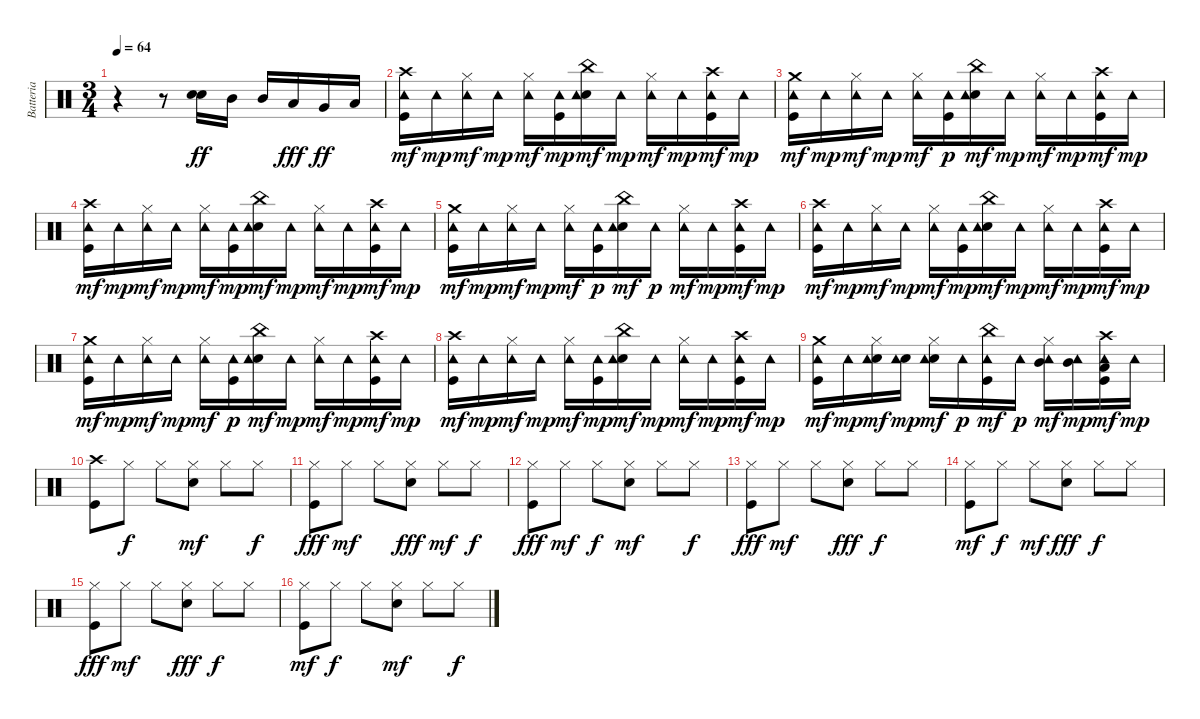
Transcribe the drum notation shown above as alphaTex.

\track ("Batteria" "Batteria") {instrument percussion}
\staff {score}
\articulation defaults
\ts (3 4)
\tempo 64
\clef neutral
\ks c
r.4{dy ff} r.8 ("Electric Snare (hit)" "Electric Snare (hit)").16 "Mid Tom (hit)".16 "Mid Tom (hit)".16 "Low Tom (hit)".16{dy fff} "Very Low Tom (hit)".16{dy ff} "Low Floor Tom (hit)".16 |
("Kick (hit)" "Crash high (hit)" "Tambourine (hit)").16{dy mf} "Tambourine (hit)".16{dy mp} ("Hi-Hat (closed)" "Tambourine (hit)").16{dy mf} "Tambourine (hit)".16{dy mp} ("Hi-Hat (closed)" "Tambourine (hit)").16{dy mf} ("Kick (hit)" "Tambourine (hit)").16{dy mp} ("Electric Snare (hit)" "China (hit)" "Tambourine (hit)").16{dy mf} "Tambourine (hit)".16{dy mp} ("Hi-Hat (closed)" "Tambourine (hit)").16{dy mf} "Tambourine (hit)".16{dy mp} ("Kick (hit)" "Crash high (hit)" "Tambourine (hit)").16{dy mf} "Tambourine (hit)".16{dy mp} |
("Kick (hit)" "Crash medium (hit)" "Tambourine (hit)").16{dy mf} "Tambourine (hit)".16{dy mp} ("Hi-Hat (closed)" "Tambourine (hit)").16{dy mf} "Tambourine (hit)".16{dy mp} ("Hi-Hat (closed)" "Tambourine (hit)").16{dy mf} ("Kick (hit)" "Tambourine (hit)").16{dy p} ("Electric Snare (hit)" "China (hit)" "Tambourine (hit)").16{dy mf} "Tambourine (hit)".16{dy mp} ("Hi-Hat (closed)" "Tambourine (hit)").16{dy mf} "Tambourine (hit)".16{dy mp} ("Kick (hit)" "Crash high (hit)" "Tambourine (hit)").16{dy mf} "Tambourine (hit)".16{dy mp} |
("Kick (hit)" "Crash high (hit)" "Tambourine (hit)").16{dy mf} "Tambourine (hit)".16{dy mp} ("Hi-Hat (closed)" "Tambourine (hit)").16{dy mf} "Tambourine (hit)".16{dy mp} ("Hi-Hat (closed)" "Tambourine (hit)").16{dy mf} ("Kick (hit)" "Tambourine (hit)").16{dy mp} ("Electric Snare (hit)" "China (hit)" "Tambourine (hit)").16{dy mf} "Tambourine (hit)".16{dy mp} ("Hi-Hat (closed)" "Tambourine (hit)").16{dy mf} "Tambourine (hit)".16{dy mp} ("Kick (hit)" "Crash high (hit)" "Tambourine (hit)").16{dy mf} "Tambourine (hit)".16{dy mp} |
("Kick (hit)" "Crash medium (hit)" "Tambourine (hit)").16{dy mf} "Tambourine (hit)".16{dy mp} ("Hi-Hat (closed)" "Tambourine (hit)").16{dy mf} "Tambourine (hit)".16{dy mp} ("Hi-Hat (closed)" "Tambourine (hit)").16{dy mf} ("Kick (hit)" "Tambourine (hit)").16{dy p} ("Electric Snare (hit)" "China (hit)" "Tambourine (hit)").16{dy mf} "Tambourine (hit)".16{dy p} ("Hi-Hat (closed)" "Tambourine (hit)").16{dy mf} "Tambourine (hit)".16{dy mp} ("Kick (hit)" "Crash high (hit)" "Tambourine (hit)").16{dy mf} "Tambourine (hit)".16{dy mp} |
("Kick (hit)" "Crash high (hit)" "Tambourine (hit)").16{dy mf} "Tambourine (hit)".16{dy mp} ("Hi-Hat (closed)" "Tambourine (hit)").16{dy mf} "Tambourine (hit)".16{dy mp} ("Hi-Hat (closed)" "Tambourine (hit)").16{dy mf} ("Kick (hit)" "Tambourine (hit)").16{dy mp} ("Electric Snare (hit)" "China (hit)" "Tambourine (hit)").16{dy mf} "Tambourine (hit)".16{dy mp} ("Hi-Hat (closed)" "Tambourine (hit)").16{dy mf} "Tambourine (hit)".16{dy mp} ("Kick (hit)" "Crash high (hit)" "Tambourine (hit)").16{dy mf} "Tambourine (hit)".16{dy mp} |
("Kick (hit)" "Crash medium (hit)" "Tambourine (hit)").16{dy mf} "Tambourine (hit)".16{dy mp} ("Hi-Hat (closed)" "Tambourine (hit)").16{dy mf} "Tambourine (hit)".16{dy mp} ("Hi-Hat (closed)" "Tambourine (hit)").16{dy mf} ("Kick (hit)" "Tambourine (hit)").16{dy p} ("Electric Snare (hit)" "China (hit)" "Tambourine (hit)").16{dy mf} "Tambourine (hit)".16{dy mp} ("Hi-Hat (closed)" "Tambourine (hit)").16{dy mf} "Tambourine (hit)".16{dy mp} ("Kick (hit)" "Crash high (hit)" "Tambourine (hit)").16{dy mf} "Tambourine (hit)".16{dy mp} |
("Kick (hit)" "Crash high (hit)" "Tambourine (hit)").16{dy mf} "Tambourine (hit)".16{dy mp} ("Hi-Hat (closed)" "Tambourine (hit)").16{dy mf} "Tambourine (hit)".16{dy mp} ("Hi-Hat (closed)" "Tambourine (hit)").16{dy mf} ("Kick (hit)" "Tambourine (hit)").16{dy mp} ("Electric Snare (hit)" "China (hit)" "Tambourine (hit)").16{dy mf} "Tambourine (hit)".16{dy mp} ("Hi-Hat (closed)" "Tambourine (hit)").16{dy mf} "Tambourine (hit)".16{dy mp} ("Kick (hit)" "Crash high (hit)" "Tambourine (hit)").16{dy mf} "Tambourine (hit)".16{dy mp} |
("Kick (hit)" "Crash medium (hit)" "Tambourine (hit)").16{dy mf} "Tambourine (hit)".16{dy mp} ("Electric Snare (hit)" "Hi-Hat (closed)" "Tambourine (hit)").16{dy mf} ("Electric Snare (hit)" "Tambourine (hit)").16{dy mp} ("Electric Snare (hit)" "Hi-Hat (closed)" "Tambourine (hit)").16{dy mf} "Tambourine (hit)".16{dy p} ("Kick (hit)" "China (hit)" "Tambourine (hit)").16{dy mf} "Tambourine (hit)".16{dy p} ("Hi-Hat (closed)" "Mid Tom (hit)" "Tambourine (hit)").16{dy mf} ("Mid Tom (hit)" "Tambourine (hit)").16{dy mp} ("Kick (hit)" "Low Tom (hit)" "Crash high (hit)" "Tambourine (hit)").16{dy mf} "Tambourine (hit)".16{dy mp} |
("Kick (hit)" "Crash high (hit)").8 "Hi-Hat (closed)".8{dy f} "Hi-Hat (closed)".8 ("Electric Snare (hit)" "Hi-Hat (closed)").8{dy mf} "Hi-Hat (closed)".8 "Hi-Hat (closed)".8{dy f} |
("Kick (hit)" "Hi-Hat (closed)").8{dy fff} "Hi-Hat (closed)".8{dy mf} "Hi-Hat (closed)".8 ("Electric Snare (hit)" "Hi-Hat (closed)").8{dy fff} "Hi-Hat (closed)".8{dy mf} "Hi-Hat (closed)".8{dy f} |
("Kick (hit)" "Hi-Hat (closed)").8{dy fff} "Hi-Hat (closed)".8{dy mf} "Hi-Hat (closed)".8{dy f} ("Electric Snare (hit)" "Hi-Hat (closed)").8{dy mf} "Hi-Hat (closed)".8 "Hi-Hat (closed)".8{dy f} |
("Kick (hit)" "Hi-Hat (closed)").8{dy fff} "Hi-Hat (closed)".8{dy mf} "Hi-Hat (closed)".8 ("Electric Snare (hit)" "Hi-Hat (closed)").8{dy fff} "Hi-Hat (closed)".8{dy f} "Hi-Hat (closed)".8 |
("Kick (hit)" "Hi-Hat (closed)").8{dy mf} "Hi-Hat (closed)".8{dy f} "Hi-Hat (closed)".8{dy mf} ("Electric Snare (hit)" "Hi-Hat (closed)").8{dy fff} "Hi-Hat (closed)".8{dy f} "Hi-Hat (closed)".8 |
("Kick (hit)" "Hi-Hat (closed)").8{dy fff} "Hi-Hat (closed)".8{dy mf} "Hi-Hat (closed)".8 ("Electric Snare (hit)" "Hi-Hat (closed)").8{dy fff} "Hi-Hat (closed)".8{dy f} "Hi-Hat (closed)".8 |
("Kick (hit)" "Hi-Hat (closed)").8{dy mf} "Hi-Hat (closed)".8{dy f} "Hi-Hat (closed)".8 ("Electric Snare (hit)" "Hi-Hat (closed)").8{dy mf} "Hi-Hat (closed)".8 "Hi-Hat (closed)".8{dy f}
